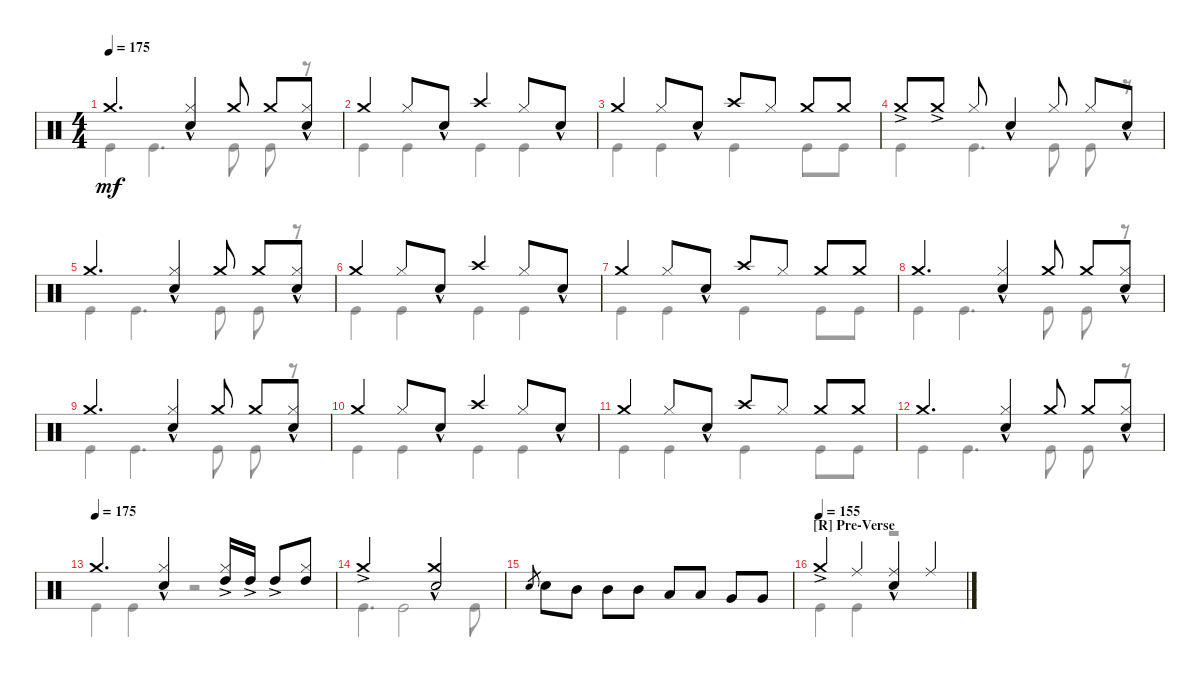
\defaultSystemsLayout 4
\bracketExtendMode groupsimilarinstruments
\singleTrackTrackNamePolicy hidden
\multiTrackTrackNamePolicy hidden
\firstSystemTrackNameOrientation horizontal
\otherSystemsTrackNameOrientation horizontal
\track ("Nicko McBrain" "Drums") {instrument percussion}
\staff {score}
\articulation defaults
\voice
\ts (4 4)
\tempo 175
\clef neutral
\scale
1.05675
\ks c "Crash medium (hit)".4{d dy mf}
("Snare (hit) 2"{hac} "Hi-Hat (closed)").4 "Crash medium (hit)".8 "Crash medium (hit)".8 ("Hi-Hat (closed)" "Snare (hit) 2"{hac}).8 |
\scale
0.943253 "Crash medium (hit)".4 "Hi-Hat (closed)".8 "Snare (hit) 2"{hac}.8 "Crash high (hit)".4 "Hi-Hat (closed)".8 "Snare (hit) 2"{hac}.8 |
\scale
1.02648 "Crash medium (hit)".4 "Hi-Hat (closed)".8 "Snare (hit) 2"{hac}.8 "Crash high (hit)".8 "Hi-Hat (closed)".8 "Crash medium (hit)".8 "Crash medium (hit)".8 |
\scale
0.973518 "Crash medium (hit)"{ac}.8 "Crash medium (hit)"{ac}.8 "Hi-Hat (closed)".8 "Snare (hit) 2"{hac}.4 "Hi-Hat (closed)".8 "Hi-Hat (closed)".8 "Snare (hit) 2"{hac}.8 |
\scale
1.02648 "Crash medium (hit)".4{d} ("Snare (hit) 2"{hac} "Hi-Hat (closed)").4 "Crash medium (hit)".8 "Crash medium (hit)".8 ("Hi-Hat (closed)" "Snare (hit) 2"{hac}).8 |
\scale
0.973518 "Crash medium (hit)".4 "Hi-Hat (closed)".8 "Snare (hit) 2"{hac}.8 "Crash high (hit)".4 "Hi-Hat (closed)".8 "Snare (hit) 2"{hac}.8 |
\scale
1.02648 "Crash medium (hit)".4 "Hi-Hat (closed)".8 "Snare (hit) 2"{hac}.8 "Crash high (hit)".8 "Hi-Hat (closed)".8 "Crash medium (hit)".8 "Crash medium (hit)".8 |
\scale
0.973518 "Crash medium (hit)".4{d} ("Snare (hit) 2"{hac} "Hi-Hat (closed)").4 "Crash medium (hit)".8 "Crash medium (hit)".8 ("Hi-Hat (closed)" "Snare (hit) 2"{hac}).8 |
\scale
1.02648 "Crash medium (hit)".4{d} ("Snare (hit) 2"{hac} "Hi-Hat (closed)").4 "Crash medium (hit)".8 "Crash medium (hit)".8 ("Hi-Hat (closed)" "Snare (hit) 2"{hac}).8 |
\scale
0.973518 "Crash medium (hit)".4 "Hi-Hat (closed)".8 "Snare (hit) 2"{hac}.8 "Crash high (hit)".4 "Hi-Hat (closed)".8 "Snare (hit) 2"{hac}.8 |
\scale
1.02648 "Crash medium (hit)".4 "Hi-Hat (closed)".8 "Snare (hit) 2"{hac}.8 "Crash high (hit)".8 "Hi-Hat (closed)".8 "Crash medium (hit)".8 "Crash medium (hit)".8 |
\scale
0.973518 "Crash medium (hit)".4{d} ("Snare (hit) 2"{hac} "Hi-Hat (closed)").4 "Crash medium (hit)".8 "Crash medium (hit)".8 ("Hi-Hat (closed)" "Snare (hit) 2"{hac}).8 |
\tempo 175
\scale
1.02648 "Crash medium (hit)".4{d} ("Hi-Hat (closed)" "Snare (hit) 2"{hac}).4 ("High Tom (hit)"{ac} "Hi-Hat (closed)").16 "High Tom (hit)"{ac}.16 "High Tom (hit)"{ac}.8 ("Hi-Hat (closed)" "High Tom (hit)").8 |
\scale
0.973518 "Crash medium (hit)"{ac}.2 ("Crash medium (hit)" "Snare (hit) 2"{hac}).2 |
\scale
1.02648 "Snare (hit) 2".8{gr} "Snare (hit) 2".8 "Mid Tom (hit)".8 "Mid Tom (hit)".8 "Mid Tom (hit)".8 "Low Tom (hit)".8 "Low Tom (hit)".8 "Very Low Tom (hit)".8 "Very Low Tom (hit)".8 |
\section ("R" "Pre-Verse")
\tempo 155
\scale
0.973518 "Crash medium (hit)"{ac}.4 "Ride (middle)".4 ("Snare (hit) 2"{hac} "Ride (middle)").4 "Ride (middle)".4
\voice
\clef neutral
\ottava regular
\simile none
\scale
1.05675
\ks c "Kick (hit)".4{dy mf} "Kick (hit)".4{d} "Kick (hit)".8 "Kick (hit)".8
r.8 |
\scale
0.943253 "Kick (hit)".4 "Kick (hit)".4 "Kick (hit)".4 "Kick (hit)".4 |
\scale
1.02648 "Kick (hit)".4 "Kick (hit)".4 "Kick (hit)".4 "Kick (hit)".8 "Kick (hit)".8 |
\scale
0.973518 "Kick (hit)".4 "Kick (hit)".4{d} "Kick (hit)".8 "Kick (hit)".8 r.8 |
\scale
1.02648 "Kick (hit)".4 "Kick (hit)".4{d} "Kick (hit)".8 "Kick (hit)".8 r.8 |
\scale
0.973518 "Kick (hit)".4 "Kick (hit)".4 "Kick (hit)".4 "Kick (hit)".4 |
\scale
1.02648 "Kick (hit)".4 "Kick (hit)".4 "Kick (hit)".4 "Kick (hit)".8 "Kick (hit)".8 |
\scale
0.973518 "Kick (hit)".4 "Kick (hit)".4{d} "Kick (hit)".8 "Kick (hit)".8 r.8 |
\scale
1.02648 "Kick (hit)".4 "Kick (hit)".4{d} "Kick (hit)".8 "Kick (hit)".8 r.8 |
\scale
0.973518 "Kick (hit)".4 "Kick (hit)".4 "Kick (hit)".4 "Kick (hit)".4 |
\scale
1.02648 "Kick (hit)".4 "Kick (hit)".4 "Kick (hit)".4 "Kick (hit)".8 "Kick (hit)".8 |
\scale
0.973518 "Kick (hit)".4 "Kick (hit)".4{d} "Kick (hit)".8 "Kick (hit)".8 r.8 |
\scale
1.02648 "Kick (hit)".4 "Kick (hit)".4 r.2 |
\scale
0.973518 "Kick (hit)".4{d} "Kick (hit)".2 "Kick (hit)".8 |
\scale
1.02648 |
\scale
0.973518 "Kick (hit)".4 "Kick (hit)".4 r.2
